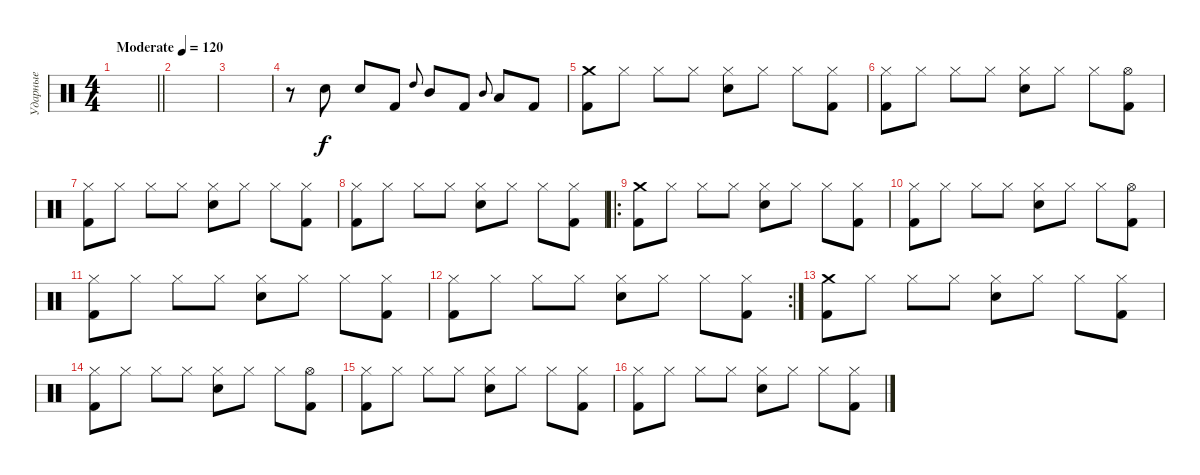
\track ("Ударные" "Ударные") {instrument percussion}
\staff {score}
\articulation defaults
\ts (4 4)
\tempo (120 "Moderate")
\clef neutral
\barLineRight lightlight
\ks c
|
\section ("" "")
|
|
r.8 "Electric Snare (hit)".8 "Electric Snare (hit)".8 "Kick (hit) 2".8 "High Tom (hit)".8{gr onbeat} "Mid Tom (hit)".8 "Kick (hit) 2".8 "Mid Tom (hit)".8{gr onbeat} "Low Tom (hit)".8 "Kick (hit) 2".8 |
("Crash medium (hit)" "Kick (hit) 2").8 "Hi-Hat (closed)".8 "Hi-Hat (closed)".8 "Hi-Hat (closed)".8 ("Hi-Hat (closed)" "Electric Snare (hit)").8 "Hi-Hat (closed)".8 "Hi-Hat (closed)".8 ("Hi-Hat (closed)" "Kick (hit) 2").8 |
("Hi-Hat (closed)" "Kick (hit) 2").8 "Hi-Hat (closed)".8 "Hi-Hat (closed)".8 "Hi-Hat (closed)".8 ("Hi-Hat (closed)" "Electric Snare (hit)").8 "Hi-Hat (closed)".8 "Hi-Hat (closed)".8 ("Hi-Hat (open)" "Kick (hit) 2").8 |
("Hi-Hat (closed)" "Kick (hit) 2").8 "Hi-Hat (closed)".8 "Hi-Hat (closed)".8 "Hi-Hat (closed)".8 ("Hi-Hat (closed)" "Electric Snare (hit)").8 "Hi-Hat (closed)".8 "Hi-Hat (closed)".8 ("Hi-Hat (closed)" "Kick (hit) 2").8 |
("Hi-Hat (closed)" "Kick (hit) 2").8 "Hi-Hat (closed)".8 "Hi-Hat (closed)".8 "Hi-Hat (closed)".8 ("Hi-Hat (closed)" "Electric Snare (hit)").8 "Hi-Hat (closed)".8 "Hi-Hat (closed)".8 ("Hi-Hat (closed)" "Kick (hit) 2").8 |
\ro
("Crash medium (hit)" "Kick (hit) 2").8 "Hi-Hat (closed)".8 "Hi-Hat (closed)".8 "Hi-Hat (closed)".8 ("Hi-Hat (closed)" "Electric Snare (hit)").8 "Hi-Hat (closed)".8 "Hi-Hat (closed)".8 ("Hi-Hat (closed)" "Kick (hit) 2").8 |
("Hi-Hat (closed)" "Kick (hit) 2").8 "Hi-Hat (closed)".8 "Hi-Hat (closed)".8 "Hi-Hat (closed)".8 ("Hi-Hat (closed)" "Electric Snare (hit)").8 "Hi-Hat (closed)".8 "Hi-Hat (closed)".8 ("Hi-Hat (open)" "Kick (hit) 2").8 |
("Hi-Hat (closed)" "Kick (hit) 2").8 "Hi-Hat (closed)".8 "Hi-Hat (closed)".8 "Hi-Hat (closed)".8 ("Hi-Hat (closed)" "Electric Snare (hit)").8 "Hi-Hat (closed)".8 "Hi-Hat (closed)".8 ("Hi-Hat (closed)" "Kick (hit) 2").8 |
\rc 2
("Hi-Hat (closed)" "Kick (hit) 2").8 "Hi-Hat (closed)".8 "Hi-Hat (closed)".8 "Hi-Hat (closed)".8 ("Hi-Hat (closed)" "Electric Snare (hit)").8 "Hi-Hat (closed)".8 "Hi-Hat (closed)".8 ("Hi-Hat (closed)" "Kick (hit) 2").8 |
("Crash medium (hit)" "Kick (hit) 2").8 "Hi-Hat (closed)".8 "Hi-Hat (closed)".8 "Hi-Hat (closed)".8 ("Hi-Hat (closed)" "Electric Snare (hit)").8 "Hi-Hat (closed)".8 "Hi-Hat (closed)".8 ("Hi-Hat (closed)" "Kick (hit) 2").8 |
("Hi-Hat (closed)" "Kick (hit) 2").8 "Hi-Hat (closed)".8 "Hi-Hat (closed)".8 "Hi-Hat (closed)".8 ("Hi-Hat (closed)" "Electric Snare (hit)").8 "Hi-Hat (closed)".8 "Hi-Hat (closed)".8 ("Hi-Hat (open)" "Kick (hit) 2").8 |
("Hi-Hat (closed)" "Kick (hit) 2").8 "Hi-Hat (closed)".8 "Hi-Hat (closed)".8 "Hi-Hat (closed)".8 ("Hi-Hat (closed)" "Electric Snare (hit)").8 "Hi-Hat (closed)".8 "Hi-Hat (closed)".8 ("Hi-Hat (closed)" "Kick (hit) 2").8 |
("Hi-Hat (closed)" "Kick (hit) 2").8 "Hi-Hat (closed)".8 "Hi-Hat (closed)".8 "Hi-Hat (closed)".8 ("Hi-Hat (closed)" "Electric Snare (hit)").8 "Hi-Hat (closed)".8 "Hi-Hat (closed)".8 ("Hi-Hat (closed)" "Kick (hit) 2").8
